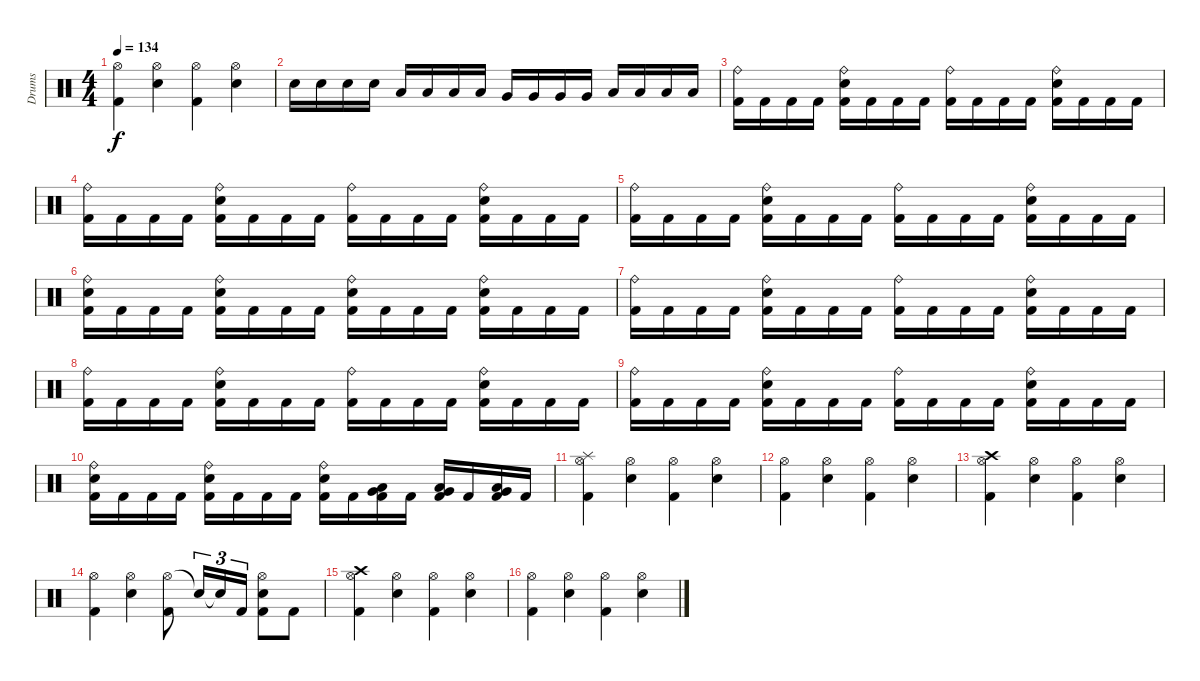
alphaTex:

\track ("Drums" "Drums") {instrument percussion}
\staff {score}
\articulation defaults
\ts (4 4)
\tempo 134
\clef neutral
\ks c
("Hi-Hat (open)" "Kick (hit) 2").4{dy f} ("Hi-Hat (open)" "Electric Snare (hit)").4 ("Hi-Hat (open)" "Kick (hit) 2").4 ("Hi-Hat (open)" "Electric Snare (hit)").4 |
"Electric Snare (hit)".16 "Electric Snare (hit)".16 "Electric Snare (hit)".16 "Electric Snare (hit)".16 "Low Floor Tom (hit)".16 "Low Floor Tom (hit)".16 "Low Floor Tom (hit)".16 "Low Floor Tom (hit)".16 "Very Low Tom (hit)".16 "Very Low Tom (hit)".16 "Very Low Tom (hit)".16 "Very Low Tom (hit)".16 "Low Tom (hit)".16 "Low Tom (hit)".16 "Low Tom (hit)".16 "Low Tom (hit)".16 |
("Ride (bell)" "Kick (hit) 2").16 "Kick (hit) 2".16 "Kick (hit) 2".16 "Kick (hit) 2".16 ("Ride (bell)" "Electric Snare (hit)" "Kick (hit) 2").16 "Kick (hit) 2".16 "Kick (hit) 2".16 "Kick (hit) 2".16 ("Ride (bell)" "Kick (hit) 2").16 "Kick (hit) 2".16 "Kick (hit) 2".16 "Kick (hit) 2".16 ("Ride (bell)" "Electric Snare (hit)" "Kick (hit) 2").16 "Kick (hit) 2".16 "Kick (hit) 2".16 "Kick (hit) 2".16 |
("Ride (bell)" "Kick (hit) 2").16 "Kick (hit) 2".16 "Kick (hit) 2".16 "Kick (hit) 2".16 ("Ride (bell)" "Electric Snare (hit)" "Kick (hit) 2").16 "Kick (hit) 2".16 "Kick (hit) 2".16 "Kick (hit) 2".16 ("Ride (bell)" "Kick (hit) 2").16 "Kick (hit) 2".16 "Kick (hit) 2".16 "Kick (hit) 2".16 ("Ride (bell)" "Electric Snare (hit)" "Kick (hit) 2").16 "Kick (hit) 2".16 "Kick (hit) 2".16 "Kick (hit) 2".16 |
("Ride (bell)" "Kick (hit) 2").16 "Kick (hit) 2".16 "Kick (hit) 2".16 "Kick (hit) 2".16 ("Ride (bell)" "Electric Snare (hit)" "Kick (hit) 2").16 "Kick (hit) 2".16 "Kick (hit) 2".16 "Kick (hit) 2".16 ("Ride (bell)" "Kick (hit) 2").16 "Kick (hit) 2".16 "Kick (hit) 2".16 "Kick (hit) 2".16 ("Ride (bell)" "Electric Snare (hit)" "Kick (hit) 2").16 "Kick (hit) 2".16 "Kick (hit) 2".16 "Kick (hit) 2".16 |
("Ride (bell)" "Electric Snare (hit)" "Kick (hit) 2").16 "Kick (hit) 2".16 "Kick (hit) 2".16 "Kick (hit) 2".16 ("Ride (bell)" "Electric Snare (hit)" "Kick (hit) 2").16 "Kick (hit) 2".16 "Kick (hit) 2".16 "Kick (hit) 2".16 ("Ride (bell)" "Electric Snare (hit)" "Kick (hit) 2").16 "Kick (hit) 2".16 "Kick (hit) 2".16 "Kick (hit) 2".16 ("Ride (bell)" "Electric Snare (hit)" "Kick (hit) 2").16 "Kick (hit) 2".16 "Kick (hit) 2".16 "Kick (hit) 2".16 |
("Ride (bell)" "Kick (hit) 2").16 "Kick (hit) 2".16 "Kick (hit) 2".16 "Kick (hit) 2".16 ("Ride (bell)" "Electric Snare (hit)" "Kick (hit) 2").16 "Kick (hit) 2".16 "Kick (hit) 2".16 "Kick (hit) 2".16 ("Ride (bell)" "Kick (hit) 2").16 "Kick (hit) 2".16 "Kick (hit) 2".16 "Kick (hit) 2".16 ("Ride (bell)" "Electric Snare (hit)" "Kick (hit) 2").16 "Kick (hit) 2".16 "Kick (hit) 2".16 "Kick (hit) 2".16 |
("Ride (bell)" "Kick (hit) 2").16 "Kick (hit) 2".16 "Kick (hit) 2".16 "Kick (hit) 2".16 ("Ride (bell)" "Electric Snare (hit)" "Kick (hit) 2").16 "Kick (hit) 2".16 "Kick (hit) 2".16 "Kick (hit) 2".16 ("Ride (bell)" "Kick (hit) 2").16 "Kick (hit) 2".16 "Kick (hit) 2".16 "Kick (hit) 2".16 ("Ride (bell)" "Electric Snare (hit)" "Kick (hit) 2").16 "Kick (hit) 2".16 "Kick (hit) 2".16 "Kick (hit) 2".16 |
("Ride (bell)" "Kick (hit) 2").16 "Kick (hit) 2".16 "Kick (hit) 2".16 "Kick (hit) 2".16 ("Ride (bell)" "Electric Snare (hit)" "Kick (hit) 2").16 "Kick (hit) 2".16 "Kick (hit) 2".16 "Kick (hit) 2".16 ("Ride (bell)" "Kick (hit) 2").16 "Kick (hit) 2".16 "Kick (hit) 2".16 "Kick (hit) 2".16 ("Ride (bell)" "Electric Snare (hit)" "Kick (hit) 2").16 "Kick (hit) 2".16 "Kick (hit) 2".16 "Kick (hit) 2".16 |
("Ride (bell)" "Electric Snare (hit)" "Kick (hit) 2").16 "Kick (hit) 2".16 "Kick (hit) 2".16 "Kick (hit) 2".16 ("Ride (bell)" "Electric Snare (hit)" "Kick (hit) 2").16 "Kick (hit) 2".16 "Kick (hit) 2".16 "Kick (hit) 2".16 ("Ride (bell)" "Electric Snare (hit)" "Kick (hit) 2").16 "Kick (hit) 2".16 ("Very Low Tom (hit)" "Low Floor Tom (hit)" "Kick (hit) 2").16 "Kick (hit) 2".16 ("Very Low Tom (hit)" "Low Floor Tom (hit)" "Kick (hit) 2").16 "Kick (hit) 2".16 ("Very Low Tom (hit)" "Low Floor Tom (hit)" "Kick (hit) 2").16 "Kick (hit) 2".16 |
("Splash (hit)" "Hi-Hat (open)" "Kick (hit) 2").4 ("Hi-Hat (open)" "Electric Snare (hit)").4 ("Hi-Hat (open)" "Kick (hit) 2").4 ("Hi-Hat (open)" "Electric Snare (hit)").4 |
("Hi-Hat (open)" "Kick (hit) 2").4 ("Hi-Hat (open)" "Electric Snare (hit)").4 ("Hi-Hat (open)" "Kick (hit) 2").4 ("Hi-Hat (open)" "Electric Snare (hit)").4 |
("Crash high (hit)" "Hi-Hat (open)" "Kick (hit) 2").4 ("Hi-Hat (open)" "Electric Snare (hit)").4 ("Hi-Hat (open)" "Kick (hit) 2").4 ("Hi-Hat (open)" "Electric Snare (hit)").4 |
("Hi-Hat (open)" "Kick (hit) 2").4 ("Hi-Hat (open)" "Electric Snare (hit)").4 ("Hi-Hat (open)" "Kick (hit) 2").8 "Snare (hit)"{t}.16{tu (3 2)} "Snare (hit)"{t}.16{tu (3 2)} "Kick (hit) 2".16{tu (3 2)} ("Hi-Hat (open)" "Electric Snare (hit)" "Kick (hit) 2").8 "Kick (hit) 2".8 |
("Crash high (hit)" "Hi-Hat (open)" "Kick (hit) 2").4 ("Hi-Hat (open)" "Electric Snare (hit)").4 ("Hi-Hat (open)" "Kick (hit) 2").4 ("Hi-Hat (open)" "Electric Snare (hit)").4 |
("Hi-Hat (open)" "Kick (hit) 2").4 ("Hi-Hat (open)" "Electric Snare (hit)").4 ("Hi-Hat (open)" "Kick (hit) 2").4 ("Hi-Hat (open)" "Electric Snare (hit)").4
